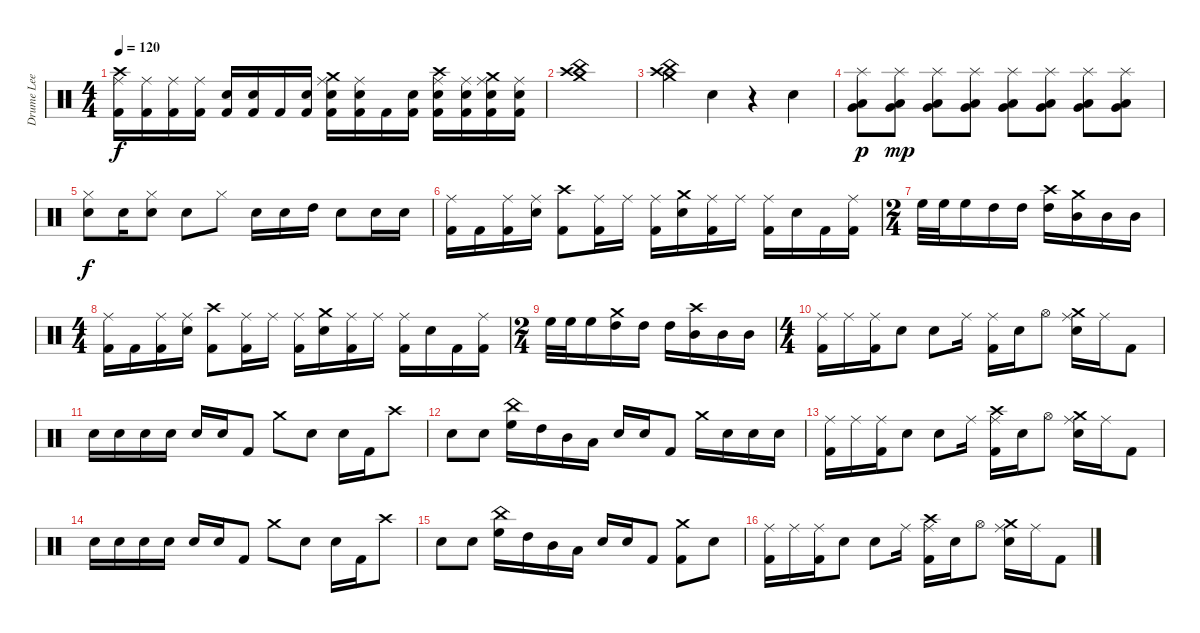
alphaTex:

\track ("Drume Lee Jhones" "Drume Lee ") {instrument percussion}
\staff {score}
\articulation defaults
\ts (4 4)
\tempo 120
\clef neutral
\ks c
("Ride (middle)" "Crash high (hit)" "Kick (hit) 2").16{dy f} ("Ride (middle)" "Kick (hit) 2").16 ("Ride (middle)" "Kick (hit) 2").16 ("Ride (middle)" "Kick (hit) 2").16 ("Snare (hit) 2" "Kick (hit) 2").16 ("Snare (hit) 2" "Kick (hit) 2").16 "Kick (hit) 2".16 ("Snare (hit) 2" "Kick (hit) 2").16 ("Ride (middle)" "Crash medium (hit)" "Snare (hit) 2" "Kick (hit) 2").16 ("Ride (middle)" "Snare (hit) 2" "Kick (hit) 2").16 "Kick (hit) 2".16 ("Snare (hit) 2" "Kick (hit) 2").16 ("Ride (middle)" "Crash high (hit)" "Snare (hit) 2" "Kick (hit) 2").16 ("Ride (middle)" "Snare (hit) 2" "Kick (hit) 2").16 ("Ride (middle)" "Crash medium (hit)" "Snare (hit) 2" "Kick (hit) 2").16 ("Ride (middle)" "Snare (hit) 2" "Kick (hit) 2").16 |
("Crash high (hit)" "Crash medium (hit)" "China (hit)").1 |
("Crash high (hit)" "Crash medium (hit)" "China (hit)").4 "Snare (hit) 2".4 r.4 "Snare (hit) 2".4 |
("Low Tom (hit)" "Very Low Tom (hit)" "Splash (hit)").8{dy p} ("Low Tom (hit)" "Very Low Tom (hit)" "Splash (hit)").8{dy mp} ("Low Tom (hit)" "Very Low Tom (hit)" "Splash (hit)").8 ("Low Tom (hit)" "Very Low Tom (hit)" "Splash (hit)").8 ("Low Tom (hit)" "Very Low Tom (hit)" "Splash (hit)").8 ("Low Tom (hit)" "Very Low Tom (hit)" "Splash (hit)").8 ("Low Tom (hit)" "Very Low Tom (hit)" "Splash (hit)").8 ("Low Tom (hit)" "Very Low Tom (hit)" "Splash (hit)").8 |
("Hi-Hat (closed)" "Snare (hit) 2").8{dy f} "Snare (hit) 2".16 ("Hi-Hat (closed)" "Snare (hit) 2").8 "Snare (hit) 2".8 "Hi-Hat (closed)".8 "Snare (hit) 2".16 "Snare (hit) 2".16 "High Tom (hit)".16 "Snare (hit) 2".8 "Snare (hit) 2".16 "Snare (hit) 2".16 |
("Ride (middle)" "Kick (hit) 2").16 "Kick (hit) 2".16 ("Ride (middle)" "Kick (hit) 2").16 ("Ride (middle)" "Snare (hit) 2").16 ("Crash high (hit)" "Kick (hit) 2").8 ("Ride (middle)" "Kick (hit) 2").16 "Ride (middle)".16 ("Ride (middle)" "Kick (hit) 2").16 ("Crash medium (hit)" "Snare (hit) 2").16 ("Ride (middle)" "Kick (hit) 2").16 "Ride (middle)".16 ("Ride (middle)" "Kick (hit) 2").16 "Snare (hit) 2".16 "Kick (hit) 2".16 ("Ride (middle)" "Kick (hit) 2").16 |
\ts (2 4)
"High Floor Tom (hit)".32 "High Floor Tom (hit)".32 "High Floor Tom (hit)".16 "High Tom (hit)".16 "High Tom (hit)".16 ("Crash high (hit)" "High Tom (hit)").16 ("Crash medium (hit)" "Mid Tom (hit)").16 "Mid Tom (hit)".16 "Mid Tom (hit)".16 |
\ts (4 4)
("Ride (middle)" "Kick (hit) 2").16 "Kick (hit) 2".16 ("Ride (middle)" "Kick (hit) 2").16 ("Ride (middle)" "Snare (hit) 2").16 ("Crash high (hit)" "Kick (hit) 2").8 ("Ride (middle)" "Kick (hit) 2").16 "Ride (middle)".16 ("Ride (middle)" "Kick (hit) 2").16 ("Crash medium (hit)" "Snare (hit) 2").16 ("Ride (middle)" "Kick (hit) 2").16 "Ride (middle)".16 ("Ride (middle)" "Kick (hit) 2").16 "Snare (hit) 2".16 "Kick (hit) 2".16 ("Ride (middle)" "Kick (hit) 2").16 |
\ts (2 4)
"High Floor Tom (hit)".32 "High Floor Tom (hit)".32 "High Floor Tom (hit)".16 ("Crash medium (hit)" "High Tom (hit)").16 "High Tom (hit)".16 "High Tom (hit)".16 ("Crash high (hit)" "Mid Tom (hit)").16 "Mid Tom (hit)".16 "Mid Tom (hit)".16 |
\ts (4 4)
("Ride (middle)" "Kick (hit) 2").16 "Ride (middle)".16 ("Ride (middle)" "Kick (hit) 2").16 "Snare (hit) 2".8 "Snare (hit) 2".8 "Ride (middle)".16 ("Ride (middle)" "Kick (hit) 2").16 "Snare (hit) 2".16 "Hi-Hat (open)".8 ("Ride (middle)" "Crash medium (hit)" "Snare (hit) 2").16 "Ride (middle)".16 "Kick (hit) 2".8 |
"Snare (hit) 2".16 "Snare (hit) 2".16 "Snare (hit) 2".16 "Snare (hit) 2".16 "Snare (hit) 2".16 "Snare (hit) 2".16 "Kick (hit) 2".8 "Crash medium (hit)".8 "Snare (hit) 2".8 "Snare (hit) 2".16 "Kick (hit) 2".16 "Crash high (hit)".8 |
"Snare (hit) 2".8 "Snare (hit) 2".8 ("China (hit)" "High Floor Tom (hit)").16 "High Tom (hit)".16 "Mid Tom (hit)".16 "Low Tom (hit)".16 "Snare (hit) 2".16 "Snare (hit) 2".16 "Kick (hit) 2".8 "Crash medium (hit)".16 "Snare (hit) 2".16 "Snare (hit) 2".16 "Snare (hit) 2".16 |
("Ride (middle)" "Kick (hit) 2").16 "Ride (middle)".16 ("Ride (middle)" "Kick (hit) 2").16 "Snare (hit) 2".8 "Snare (hit) 2".8 "Ride (middle)".16 ("Ride (middle)" "Crash high (hit)" "Kick (hit) 2").16 "Snare (hit) 2".16 "Hi-Hat (open)".8 ("Ride (middle)" "Crash medium (hit)" "Snare (hit) 2").16 "Ride (middle)".16 "Kick (hit) 2".8 |
"Snare (hit) 2".16 "Snare (hit) 2".16 "Snare (hit) 2".16 "Snare (hit) 2".16 "Snare (hit) 2".16 "Snare (hit) 2".16 "Kick (hit) 2".8 "Crash medium (hit)".8 "Snare (hit) 2".8 "Snare (hit) 2".16 "Kick (hit) 2".16 "Crash high (hit)".8 |
"Snare (hit) 2".8 "Snare (hit) 2".8 ("China (hit)" "High Floor Tom (hit)").16 "High Tom (hit)".16 "Mid Tom (hit)".16 "Low Tom (hit)".16 "Snare (hit) 2".16 "Snare (hit) 2".16 "Kick (hit) 2".8 ("Crash medium (hit)" "Kick (hit) 2").8 "Snare (hit) 2".8 |
("Ride (middle)" "Kick (hit) 2").16 "Ride (middle)".16 ("Ride (middle)" "Kick (hit) 2").16 "Snare (hit) 2".8 "Snare (hit) 2".8 "Ride (middle)".16 ("Ride (middle)" "Crash high (hit)" "Kick (hit) 2").16 "Snare (hit) 2".16 "Hi-Hat (open)".8 ("Ride (middle)" "Crash medium (hit)" "Snare (hit) 2").16 "Ride (middle)".16 "Kick (hit) 2".8
